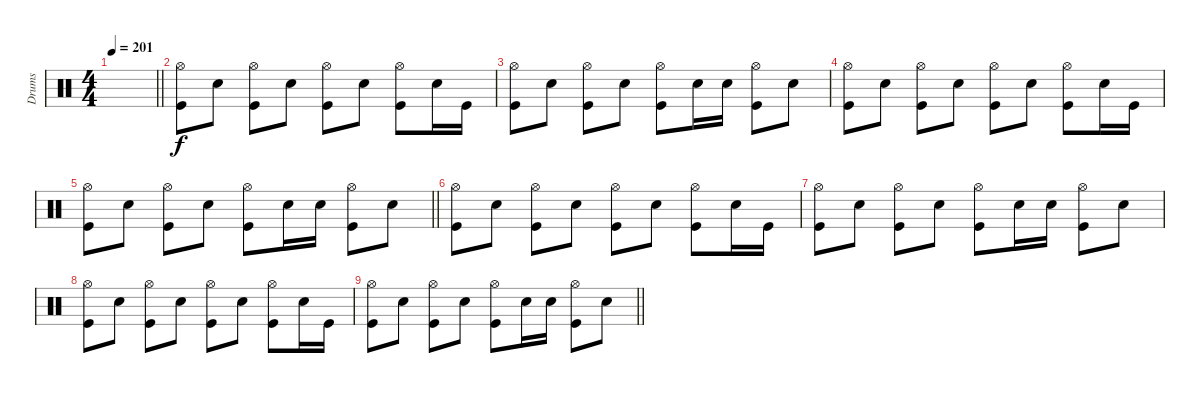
\track ("Drums" "Drums") {instrument percussion}
\staff
\articulation defaults
\ts (4 4)
\tempo 201
\clef neutral
\barLineRight lightlight
\ks c
|
("Hi-Hat (open)" "Kick (hit)").8 "Electric Snare (hit)".8 ("Hi-Hat (open)" "Kick (hit)").8 "Electric Snare (hit)".8 ("Hi-Hat (open)" "Kick (hit)").8 "Electric Snare (hit)".8 ("Hi-Hat (open)" "Kick (hit)").8 "Electric Snare (hit)".16 "Kick (hit)".16 |
("Hi-Hat (open)" "Kick (hit)").8 "Electric Snare (hit)".8 ("Hi-Hat (open)" "Kick (hit)").8 "Electric Snare (hit)".8 ("Hi-Hat (open)" "Kick (hit)").8 "Electric Snare (hit)".16 "Electric Snare (hit)".16 ("Hi-Hat (open)" "Kick (hit)").8 "Electric Snare (hit)".8 |
("Hi-Hat (open)" "Kick (hit)").8 "Electric Snare (hit)".8 ("Hi-Hat (open)" "Kick (hit)").8 "Electric Snare (hit)".8 ("Hi-Hat (open)" "Kick (hit)").8 "Electric Snare (hit)".8 ("Hi-Hat (open)" "Kick (hit)").8 "Electric Snare (hit)".16 "Kick (hit)".16 |
\barLineRight lightlight
("Hi-Hat (open)" "Kick (hit)").8 "Electric Snare (hit)".8 ("Hi-Hat (open)" "Kick (hit)").8 "Electric Snare (hit)".8 ("Hi-Hat (open)" "Kick (hit)").8 "Electric Snare (hit)".16 "Electric Snare (hit)".16 ("Hi-Hat (open)" "Kick (hit)").8 "Electric Snare (hit)".8 |
("Hi-Hat (open)" "Kick (hit)").8 "Electric Snare (hit)".8 ("Hi-Hat (open)" "Kick (hit)").8 "Electric Snare (hit)".8 ("Hi-Hat (open)" "Kick (hit)").8 "Electric Snare (hit)".8 ("Hi-Hat (open)" "Kick (hit)").8 "Electric Snare (hit)".16 "Kick (hit)".16 |
("Hi-Hat (open)" "Kick (hit)").8 "Electric Snare (hit)".8 ("Hi-Hat (open)" "Kick (hit)").8 "Electric Snare (hit)".8 ("Hi-Hat (open)" "Kick (hit)").8 "Electric Snare (hit)".16 "Electric Snare (hit)".16 ("Hi-Hat (open)" "Kick (hit)").8 "Electric Snare (hit)".8 |
("Hi-Hat (open)" "Kick (hit)").8 "Electric Snare (hit)".8 ("Hi-Hat (open)" "Kick (hit)").8 "Electric Snare (hit)".8 ("Hi-Hat (open)" "Kick (hit)").8 "Electric Snare (hit)".8 ("Hi-Hat (open)" "Kick (hit)").8 "Electric Snare (hit)".16 "Kick (hit)".16 |
\barLineRight lightlight
("Hi-Hat (open)" "Kick (hit)").8 "Electric Snare (hit)".8 ("Hi-Hat (open)" "Kick (hit)").8 "Electric Snare (hit)".8 ("Hi-Hat (open)" "Kick (hit)").8 "Electric Snare (hit)".16 "Electric Snare (hit)".16 ("Hi-Hat (open)" "Kick (hit)").8 "Electric Snare (hit)".8
